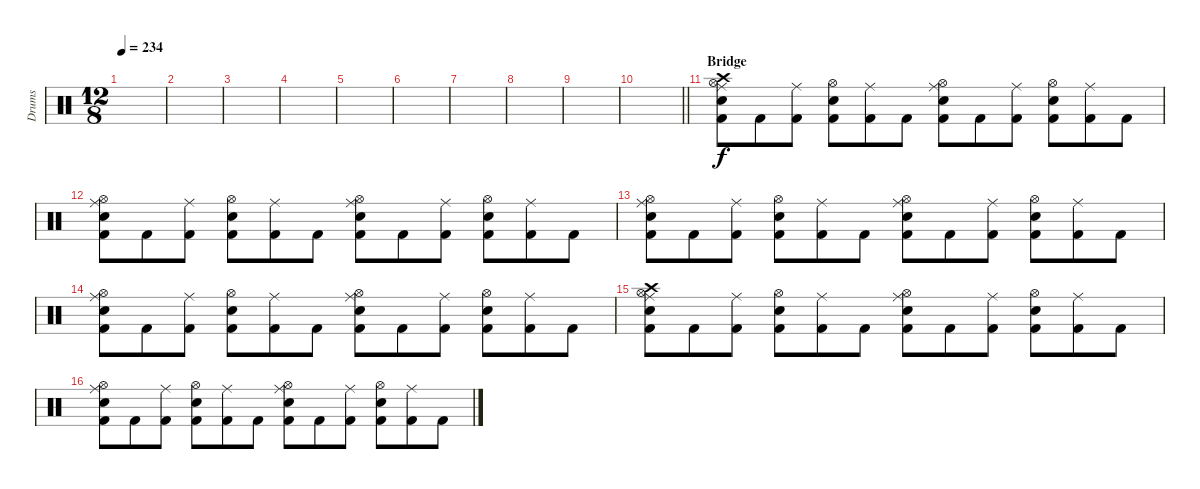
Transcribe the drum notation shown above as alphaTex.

\track ("Drums" "Drums") {instrument percussion}
\staff {score}
\articulation defaults
\ts (12 8)
\tempo 234
\clef neutral
\ks c
|
|
|
|
|
|
|
|
|
\barLineRight lightlight
|
\section ("" "Bridge")
("Crash high (hit)" "Ride (middle)" "Hi-Hat (open)" "Snare (hit) 2" "Kick (hit) 2").8 "Kick (hit) 2".8 ("Ride (middle)" "Kick (hit) 2").8 ("Hi-Hat (open)" "Snare (hit) 2" "Kick (hit) 2").8 ("Ride (middle)" "Kick (hit) 2").8 "Kick (hit) 2".8 ("Ride (middle)" "Hi-Hat (open)" "Snare (hit) 2" "Kick (hit) 2").8 "Kick (hit) 2".8 ("Ride (middle)" "Kick (hit) 2").8 ("Hi-Hat (open)" "Snare (hit) 2" "Kick (hit) 2").8 ("Ride (middle)" "Kick (hit) 2").8 "Kick (hit) 2".8 |
("Ride (middle)" "Hi-Hat (open)" "Snare (hit) 2" "Kick (hit) 2").8 "Kick (hit) 2".8 ("Ride (middle)" "Kick (hit) 2").8 ("Hi-Hat (open)" "Snare (hit) 2" "Kick (hit) 2").8 ("Ride (middle)" "Kick (hit) 2").8 "Kick (hit) 2".8 ("Ride (middle)" "Hi-Hat (open)" "Snare (hit) 2" "Kick (hit) 2").8 "Kick (hit) 2".8 ("Ride (middle)" "Kick (hit) 2").8 ("Hi-Hat (open)" "Snare (hit) 2" "Kick (hit) 2").8 ("Ride (middle)" "Kick (hit) 2").8 "Kick (hit) 2".8 |
("Ride (middle)" "Hi-Hat (open)" "Snare (hit) 2" "Kick (hit) 2").8 "Kick (hit) 2".8 ("Ride (middle)" "Kick (hit) 2").8 ("Hi-Hat (open)" "Snare (hit) 2" "Kick (hit) 2").8 ("Ride (middle)" "Kick (hit) 2").8 "Kick (hit) 2".8 ("Ride (middle)" "Hi-Hat (open)" "Snare (hit) 2" "Kick (hit) 2").8 "Kick (hit) 2".8 ("Ride (middle)" "Kick (hit) 2").8 ("Hi-Hat (open)" "Snare (hit) 2" "Kick (hit) 2").8 ("Ride (middle)" "Kick (hit) 2").8 "Kick (hit) 2".8 |
("Ride (middle)" "Hi-Hat (open)" "Snare (hit) 2" "Kick (hit) 2").8 "Kick (hit) 2".8 ("Ride (middle)" "Kick (hit) 2").8 ("Hi-Hat (open)" "Snare (hit) 2" "Kick (hit) 2").8 ("Ride (middle)" "Kick (hit) 2").8 "Kick (hit) 2".8 ("Ride (middle)" "Hi-Hat (open)" "Snare (hit) 2" "Kick (hit) 2").8 "Kick (hit) 2".8 ("Ride (middle)" "Kick (hit) 2").8 ("Hi-Hat (open)" "Snare (hit) 2" "Kick (hit) 2").8 ("Ride (middle)" "Kick (hit) 2").8 "Kick (hit) 2".8 |
("Crash high (hit)" "Ride (middle)" "Hi-Hat (open)" "Snare (hit) 2" "Kick (hit) 2").8 "Kick (hit) 2".8 ("Ride (middle)" "Kick (hit) 2").8 ("Hi-Hat (open)" "Snare (hit) 2" "Kick (hit) 2").8 ("Ride (middle)" "Kick (hit) 2").8 "Kick (hit) 2".8 ("Ride (middle)" "Hi-Hat (open)" "Snare (hit) 2" "Kick (hit) 2").8 "Kick (hit) 2".8 ("Ride (middle)" "Kick (hit) 2").8 ("Hi-Hat (open)" "Snare (hit) 2" "Kick (hit) 2").8 ("Ride (middle)" "Kick (hit) 2").8 "Kick (hit) 2".8 |
("Ride (middle)" "Hi-Hat (open)" "Snare (hit) 2" "Kick (hit) 2").8 "Kick (hit) 2".8 ("Ride (middle)" "Kick (hit) 2").8 ("Hi-Hat (open)" "Snare (hit) 2" "Kick (hit) 2").8 ("Ride (middle)" "Kick (hit) 2").8 "Kick (hit) 2".8 ("Ride (middle)" "Hi-Hat (open)" "Snare (hit) 2" "Kick (hit) 2").8 "Kick (hit) 2".8 ("Ride (middle)" "Kick (hit) 2").8 ("Hi-Hat (open)" "Snare (hit) 2" "Kick (hit) 2").8 ("Ride (middle)" "Kick (hit) 2").8 "Kick (hit) 2".8
